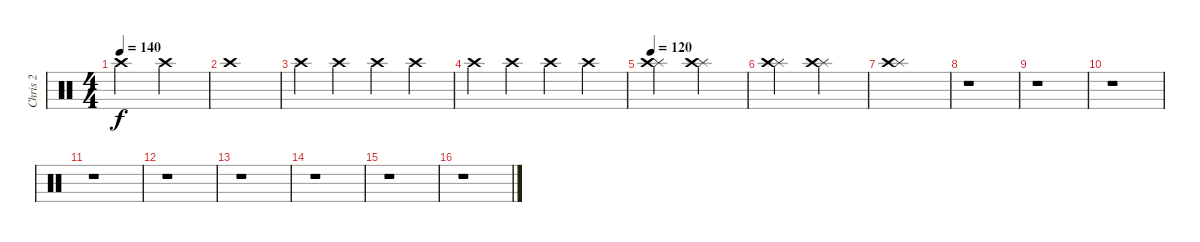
\track ("Chris 2" "Chris 2") {instrument percussion}
\staff {score}
\articulation defaults
\ts (4 4)
\tempo 140
\clef neutral
\ks c "Crash high (hit)".2{dy f} "Crash high (hit)".2
|
"Crash high (hit)".1 |
"Crash high (hit)".4 "Crash high (hit)".4 "Crash high (hit)".4 "Crash high (hit)".4 |
"Crash high (hit)".4 "Crash high (hit)".4 "Crash high (hit)".4 "Crash high (hit)".4 |
\tempo 120
("Splash (hit)" "Crash high (hit)").2 ("Splash (hit)" "Crash high (hit)").2 |
("Splash (hit)" "Crash high (hit)").2 ("Splash (hit)" "Crash high (hit)").2 |
("Splash (hit)" "Crash high (hit)").1 |
r.1 |
r.1 |
r.1 |
r.1 |
r.1 |
r.1 |
r.1 |
r.1 |
r.1
